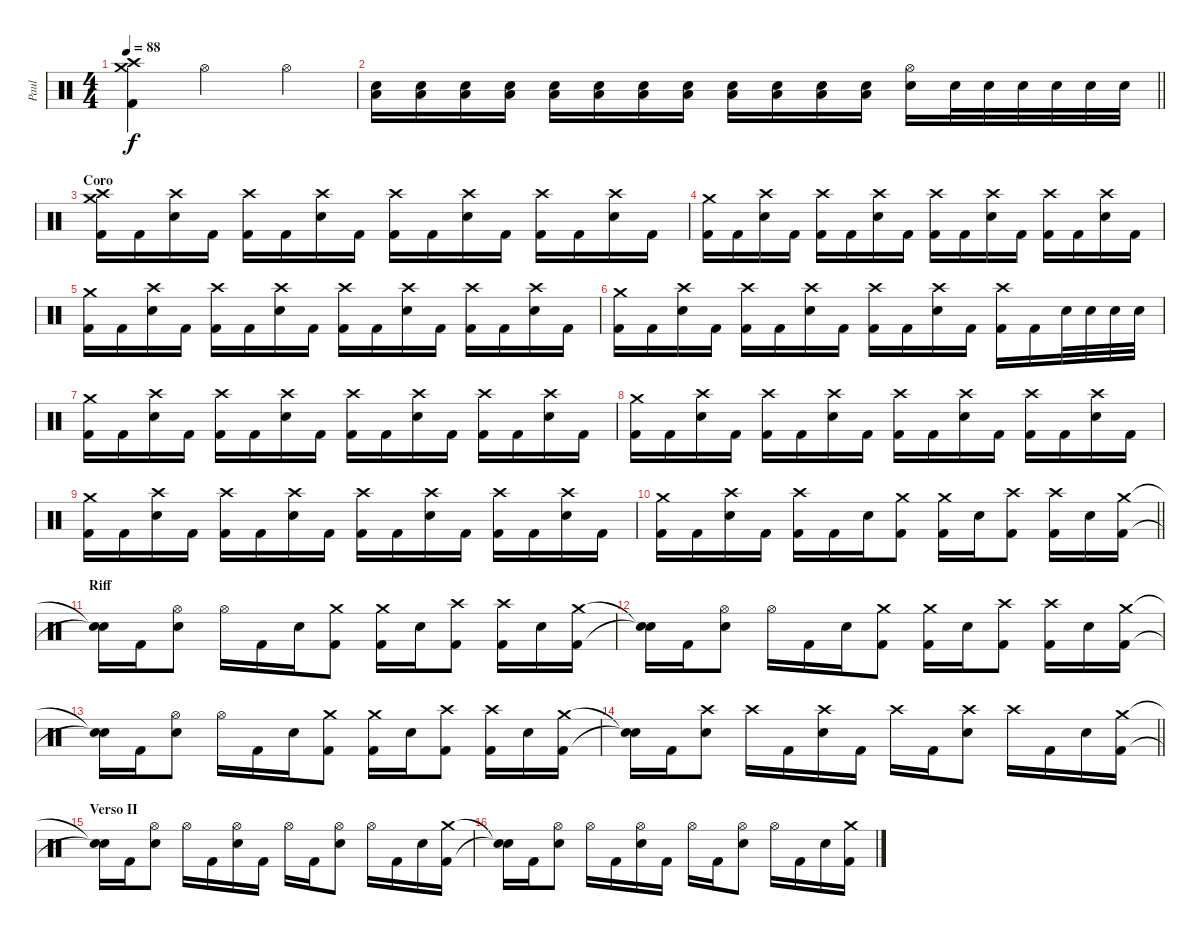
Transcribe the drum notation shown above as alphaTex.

\track ("Paul" "Paul") {instrument percussion}
\staff
\articulation defaults
\ts (4 4)
\tempo 88
\clef neutral
\ks c
("Crash medium (hit)" "Crash high (hit)" "Kick (hit) 2").4{dy f} "Hi-Hat (open)".2 "Hi-Hat (open)".4 |
\barLineRight lightlight
("Electric Snare (hit)" "Low Floor Tom (hit)").16 ("Electric Snare (hit)" "Low Floor Tom (hit)").16 ("Electric Snare (hit)" "Low Floor Tom (hit)").16 ("Electric Snare (hit)" "Low Floor Tom (hit)").16 ("Electric Snare (hit)" "Low Floor Tom (hit)").16 ("Electric Snare (hit)" "Low Floor Tom (hit)").16 ("Electric Snare (hit)" "Low Floor Tom (hit)").16 ("Electric Snare (hit)" "Low Floor Tom (hit)").16 ("Electric Snare (hit)" "Low Floor Tom (hit)").16 ("Electric Snare (hit)" "Low Floor Tom (hit)").16 ("Electric Snare (hit)" "Low Floor Tom (hit)").16 ("Electric Snare (hit)" "Low Floor Tom (hit)").16 ("Hi-Hat (open)" "Electric Snare (hit)").16 "Electric Snare (hit)".32 "Electric Snare (hit)".32 "Electric Snare (hit)".32 "Electric Snare (hit)".32 "Electric Snare (hit)".32 "Electric Snare (hit)".32 |
\section ("" "Coro")
("Crash medium (hit)" "Crash high (hit)" "Kick (hit) 2").16 "Kick (hit) 2".16 ("Crash high (hit)" "Electric Snare (hit)").16 "Kick (hit) 2".16 ("Crash high (hit)" "Kick (hit) 2").16 "Kick (hit) 2".16 ("Crash high (hit)" "Electric Snare (hit)").16 "Kick (hit) 2".16 ("Crash high (hit)" "Kick (hit) 2").16 "Kick (hit) 2".16 ("Crash high (hit)" "Electric Snare (hit)").16 "Kick (hit) 2".16 ("Crash high (hit)" "Kick (hit) 2").16 "Kick (hit) 2".16 ("Crash high (hit)" "Electric Snare (hit)").16 "Kick (hit) 2".16 |
("Crash medium (hit)" "Kick (hit) 2").16 "Kick (hit) 2".16 ("Crash high (hit)" "Electric Snare (hit)").16 "Kick (hit) 2".16 ("Crash high (hit)" "Kick (hit) 2").16 "Kick (hit) 2".16 ("Crash high (hit)" "Electric Snare (hit)").16 "Kick (hit) 2".16 ("Crash high (hit)" "Kick (hit) 2").16 "Kick (hit) 2".16 ("Crash high (hit)" "Electric Snare (hit)").16 "Kick (hit) 2".16 ("Crash high (hit)" "Kick (hit) 2").16 "Kick (hit) 2".16 ("Crash high (hit)" "Electric Snare (hit)").16 "Kick (hit) 2".16 |
("Crash medium (hit)" "Kick (hit) 2").16 "Kick (hit) 2".16 ("Crash high (hit)" "Electric Snare (hit)").16 "Kick (hit) 2".16 ("Crash high (hit)" "Kick (hit) 2").16 "Kick (hit) 2".16 ("Crash high (hit)" "Electric Snare (hit)").16 "Kick (hit) 2".16 ("Crash high (hit)" "Kick (hit) 2").16 "Kick (hit) 2".16 ("Crash high (hit)" "Electric Snare (hit)").16 "Kick (hit) 2".16 ("Crash high (hit)" "Kick (hit) 2").16 "Kick (hit) 2".16 ("Crash high (hit)" "Electric Snare (hit)").16 "Kick (hit) 2".16 |
("Crash medium (hit)" "Kick (hit) 2").16 "Kick (hit) 2".16 ("Crash high (hit)" "Electric Snare (hit)").16 "Kick (hit) 2".16 ("Crash high (hit)" "Kick (hit) 2").16 "Kick (hit) 2".16 ("Crash high (hit)" "Electric Snare (hit)").16 "Kick (hit) 2".16 ("Crash high (hit)" "Kick (hit) 2").16 "Kick (hit) 2".16 ("Crash high (hit)" "Electric Snare (hit)").16 "Kick (hit) 2".16 ("Crash high (hit)" "Kick (hit) 2").16 "Kick (hit) 2".16 "Electric Snare (hit)".32 "Electric Snare (hit)".32 "Electric Snare (hit)".32 "Electric Snare (hit)".32 |
("Crash medium (hit)" "Kick (hit) 2").16 "Kick (hit) 2".16 ("Crash high (hit)" "Electric Snare (hit)").16 "Kick (hit) 2".16 ("Crash high (hit)" "Kick (hit) 2").16 "Kick (hit) 2".16 ("Crash high (hit)" "Electric Snare (hit)").16 "Kick (hit) 2".16 ("Crash high (hit)" "Kick (hit) 2").16 "Kick (hit) 2".16 ("Crash high (hit)" "Electric Snare (hit)").16 "Kick (hit) 2".16 ("Crash high (hit)" "Kick (hit) 2").16 "Kick (hit) 2".16 ("Crash high (hit)" "Electric Snare (hit)").16 "Kick (hit) 2".16 |
("Crash medium (hit)" "Kick (hit) 2").16 "Kick (hit) 2".16 ("Crash high (hit)" "Electric Snare (hit)").16 "Kick (hit) 2".16 ("Crash high (hit)" "Kick (hit) 2").16 "Kick (hit) 2".16 ("Crash high (hit)" "Electric Snare (hit)").16 "Kick (hit) 2".16 ("Crash high (hit)" "Kick (hit) 2").16 "Kick (hit) 2".16 ("Crash high (hit)" "Electric Snare (hit)").16 "Kick (hit) 2".16 ("Crash high (hit)" "Kick (hit) 2").16 "Kick (hit) 2".16 ("Crash high (hit)" "Electric Snare (hit)").16 "Kick (hit) 2".16 |
("Crash medium (hit)" "Kick (hit) 2").16 "Kick (hit) 2".16 ("Crash high (hit)" "Electric Snare (hit)").16 "Kick (hit) 2".16 ("Crash high (hit)" "Kick (hit) 2").16 "Kick (hit) 2".16 ("Crash high (hit)" "Electric Snare (hit)").16 "Kick (hit) 2".16 ("Crash high (hit)" "Kick (hit) 2").16 "Kick (hit) 2".16 ("Crash high (hit)" "Electric Snare (hit)").16 "Kick (hit) 2".16 ("Crash high (hit)" "Kick (hit) 2").16 "Kick (hit) 2".16 ("Crash high (hit)" "Electric Snare (hit)").16 "Kick (hit) 2".16 |
\barLineRight lightlight
("Crash medium (hit)" "Kick (hit) 2").16 "Kick (hit) 2".16 ("Crash high (hit)" "Electric Snare (hit)").16 "Kick (hit) 2".16 ("Crash high (hit)" "Kick (hit) 2").16 "Kick (hit) 2".16 "Electric Snare (hit)".16 ("Crash medium (hit)" "Kick (hit) 2").8 ("Crash medium (hit)" "Kick (hit) 2").16 "Electric Snare (hit)".16 ("Crash high (hit)" "Kick (hit) 2").8 ("Crash high (hit)" "Kick (hit) 2").16 "Electric Snare (hit)".16 ("Crash medium (hit)" "Kick (hit) 2").16 |
\section ("" "Riff")
("Snare (hit)"{t} "Snare (hit)"{t}).16 "Kick (hit) 2".16 ("Hi-Hat (open)" "Electric Snare (hit)").8 "Hi-Hat (open)".16 "Kick (hit) 2".16 "Electric Snare (hit)".16 ("Crash medium (hit)" "Kick (hit) 2").8 ("Crash medium (hit)" "Kick (hit) 2").16 "Electric Snare (hit)".16 ("Crash high (hit)" "Kick (hit) 2").8 ("Crash high (hit)" "Kick (hit) 2").16 "Electric Snare (hit)".16 ("Crash medium (hit)" "Kick (hit) 2").16 |
("Snare (hit)"{t} "Snare (hit)"{t}).16 "Kick (hit) 2".16 ("Hi-Hat (open)" "Electric Snare (hit)").8 "Hi-Hat (open)".16 "Kick (hit) 2".16 "Electric Snare (hit)".16 ("Crash medium (hit)" "Kick (hit) 2").8 ("Crash medium (hit)" "Kick (hit) 2").16 "Electric Snare (hit)".16 ("Crash high (hit)" "Kick (hit) 2").8 ("Crash high (hit)" "Kick (hit) 2").16 "Electric Snare (hit)".16 ("Crash medium (hit)" "Kick (hit) 2").16 |
("Snare (hit)"{t} "Snare (hit)"{t}).16 "Kick (hit) 2".16 ("Hi-Hat (open)" "Electric Snare (hit)").8 "Hi-Hat (open)".16 "Kick (hit) 2".16 "Electric Snare (hit)".16 ("Crash medium (hit)" "Kick (hit) 2").8 ("Crash medium (hit)" "Kick (hit) 2").16 "Electric Snare (hit)".16 ("Crash high (hit)" "Kick (hit) 2").8 ("Crash high (hit)" "Kick (hit) 2").16 "Electric Snare (hit)".16 ("Crash medium (hit)" "Kick (hit) 2").16 |
\barLineRight lightlight
("Snare (hit)"{t} "Snare (hit)"{t}).16 "Kick (hit) 2".16 ("Crash high (hit)" "Electric Snare (hit)").8 "Crash high (hit)".16 "Kick (hit) 2".16 ("Crash high (hit)" "Electric Snare (hit)").16 "Kick (hit) 2".16 "Crash high (hit)".16 "Kick (hit) 2".16 ("Crash high (hit)" "Electric Snare (hit)").8 "Crash high (hit)".16 "Kick (hit) 2".16 "Electric Snare (hit)".16 ("Crash medium (hit)" "Kick (hit) 2").16 |
\section ("" "Verso II")
("Snare (hit)"{t} "Snare (hit)"{t}).16 "Kick (hit) 2".16 ("Hi-Hat (open)" "Electric Snare (hit)").8 "Hi-Hat (open)".16 "Kick (hit) 2".16 ("Hi-Hat (open)" "Electric Snare (hit)").16 "Kick (hit) 2".16 "Hi-Hat (open)".16 "Kick (hit) 2".16 ("Hi-Hat (open)" "Electric Snare (hit)").8 "Hi-Hat (open)".16 "Kick (hit) 2".16 "Electric Snare (hit)".16 ("Crash medium (hit)" "Kick (hit) 2").16 |
("Snare (hit)"{t} "Snare (hit)"{t}).16 "Kick (hit) 2".16 ("Hi-Hat (open)" "Electric Snare (hit)").8 "Hi-Hat (open)".16 "Kick (hit) 2".16 ("Hi-Hat (open)" "Electric Snare (hit)").16 "Kick (hit) 2".16 "Hi-Hat (open)".16 "Kick (hit) 2".16 ("Hi-Hat (open)" "Electric Snare (hit)").8 "Hi-Hat (open)".16 "Kick (hit) 2".16 "Electric Snare (hit)".16 ("Crash medium (hit)" "Kick (hit) 2").16
